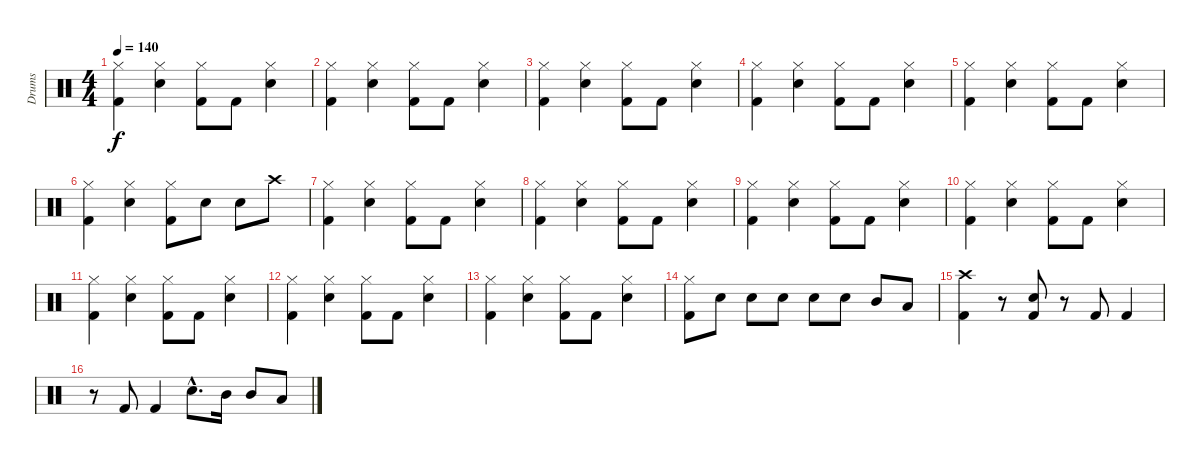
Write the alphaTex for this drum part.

\track ("Drums" "Drums") {instrument percussion}
\staff {score}
\articulation defaults
\ts (4 4)
\tempo 140
\clef neutral
\ks c
("Hi-Hat (closed)" "Kick (hit) 2").4{dy f} ("Hi-Hat (closed)" "Electric Snare (hit)").4 ("Hi-Hat (closed)" "Kick (hit) 2").8 "Kick (hit) 2".8 ("Hi-Hat (closed)" "Electric Snare (hit)").4 |
("Hi-Hat (closed)" "Kick (hit) 2").4 ("Hi-Hat (closed)" "Electric Snare (hit)").4 ("Hi-Hat (closed)" "Kick (hit) 2").8 "Kick (hit) 2".8 ("Hi-Hat (closed)" "Electric Snare (hit)").4 |
("Hi-Hat (closed)" "Kick (hit) 2").4 ("Hi-Hat (closed)" "Electric Snare (hit)").4 ("Hi-Hat (closed)" "Kick (hit) 2").8 "Kick (hit) 2".8 ("Hi-Hat (closed)" "Electric Snare (hit)").4 |
("Hi-Hat (closed)" "Kick (hit) 2").4 ("Hi-Hat (closed)" "Electric Snare (hit)").4 ("Hi-Hat (closed)" "Kick (hit) 2").8 "Kick (hit) 2".8 ("Hi-Hat (closed)" "Electric Snare (hit)").4 |
("Hi-Hat (closed)" "Kick (hit) 2").4 ("Hi-Hat (closed)" "Electric Snare (hit)").4 ("Hi-Hat (closed)" "Kick (hit) 2").8 "Kick (hit) 2".8 ("Hi-Hat (closed)" "Electric Snare (hit)").4 |
("Hi-Hat (closed)" "Kick (hit) 2").4 ("Hi-Hat (closed)" "Electric Snare (hit)").4 ("Hi-Hat (closed)" "Kick (hit) 2").8 "Electric Snare (hit)".8 "Electric Snare (hit)".8 "Crash high (hit)".8 |
("Hi-Hat (closed)" "Kick (hit) 2").4 ("Hi-Hat (closed)" "Electric Snare (hit)").4 ("Hi-Hat (closed)" "Kick (hit) 2").8 "Kick (hit) 2".8 ("Hi-Hat (closed)" "Electric Snare (hit)").4 |
("Hi-Hat (closed)" "Kick (hit) 2").4 ("Hi-Hat (closed)" "Electric Snare (hit)").4 ("Hi-Hat (closed)" "Kick (hit) 2").8 "Kick (hit) 2".8 ("Hi-Hat (closed)" "Electric Snare (hit)").4 |
("Hi-Hat (closed)" "Kick (hit) 2").4 ("Hi-Hat (closed)" "Electric Snare (hit)").4 ("Hi-Hat (closed)" "Kick (hit) 2").8 "Kick (hit) 2".8 ("Hi-Hat (closed)" "Electric Snare (hit)").4 |
("Hi-Hat (closed)" "Kick (hit) 2").4 ("Hi-Hat (closed)" "Electric Snare (hit)").4 ("Hi-Hat (closed)" "Kick (hit) 2").8 "Kick (hit) 2".8 ("Hi-Hat (closed)" "Electric Snare (hit)").4 |
("Hi-Hat (closed)" "Kick (hit) 2").4 ("Hi-Hat (closed)" "Electric Snare (hit)").4 ("Hi-Hat (closed)" "Kick (hit) 2").8 "Kick (hit) 2".8 ("Hi-Hat (closed)" "Electric Snare (hit)").4 |
("Hi-Hat (closed)" "Kick (hit) 2").4 ("Hi-Hat (closed)" "Electric Snare (hit)").4 ("Hi-Hat (closed)" "Kick (hit) 2").8 "Kick (hit) 2".8 ("Hi-Hat (closed)" "Electric Snare (hit)").4 |
("Hi-Hat (closed)" "Kick (hit) 2").4 ("Hi-Hat (closed)" "Electric Snare (hit)").4 ("Hi-Hat (closed)" "Kick (hit) 2").8 "Kick (hit) 2".8 ("Hi-Hat (closed)" "Electric Snare (hit)").4 |
("Hi-Hat (closed)" "Kick (hit) 2").8 "Electric Snare (hit)".8 "Electric Snare (hit)".8 "Electric Snare (hit)".8 "Electric Snare (hit)".8 "Electric Snare (hit)".8 "Mid Tom (hit)".8 "Low Tom (hit)".8 |
("Crash high (hit)" "Kick (hit) 2").4 r.8 ("Electric Snare (hit)" "Kick (hit) 2").8 r.8 "Kick (hit) 2".8 "Kick (hit) 2".4 |
r.8 "Kick (hit) 2".8 "Kick (hit) 2".4 "Electric Snare (hit)"{hac}.8{d} "Mid Tom (hit)".16 "Mid Tom (hit)".8 "Low Tom (hit)".8
